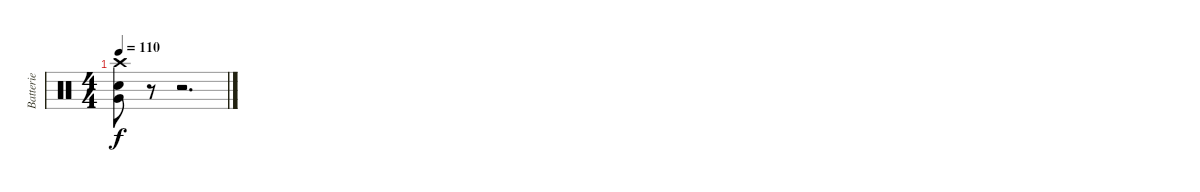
\track ("Batterie" "Batterie") {instrument percussion}
\staff {score}
\articulation defaults
\ts (4 4)
\tempo 110
\clef neutral
\ks c
("Crash high (hit)" "Very Low Tom (hit)" "Electric Snare (hit)").8{dy f} r.8 r.2{d}
